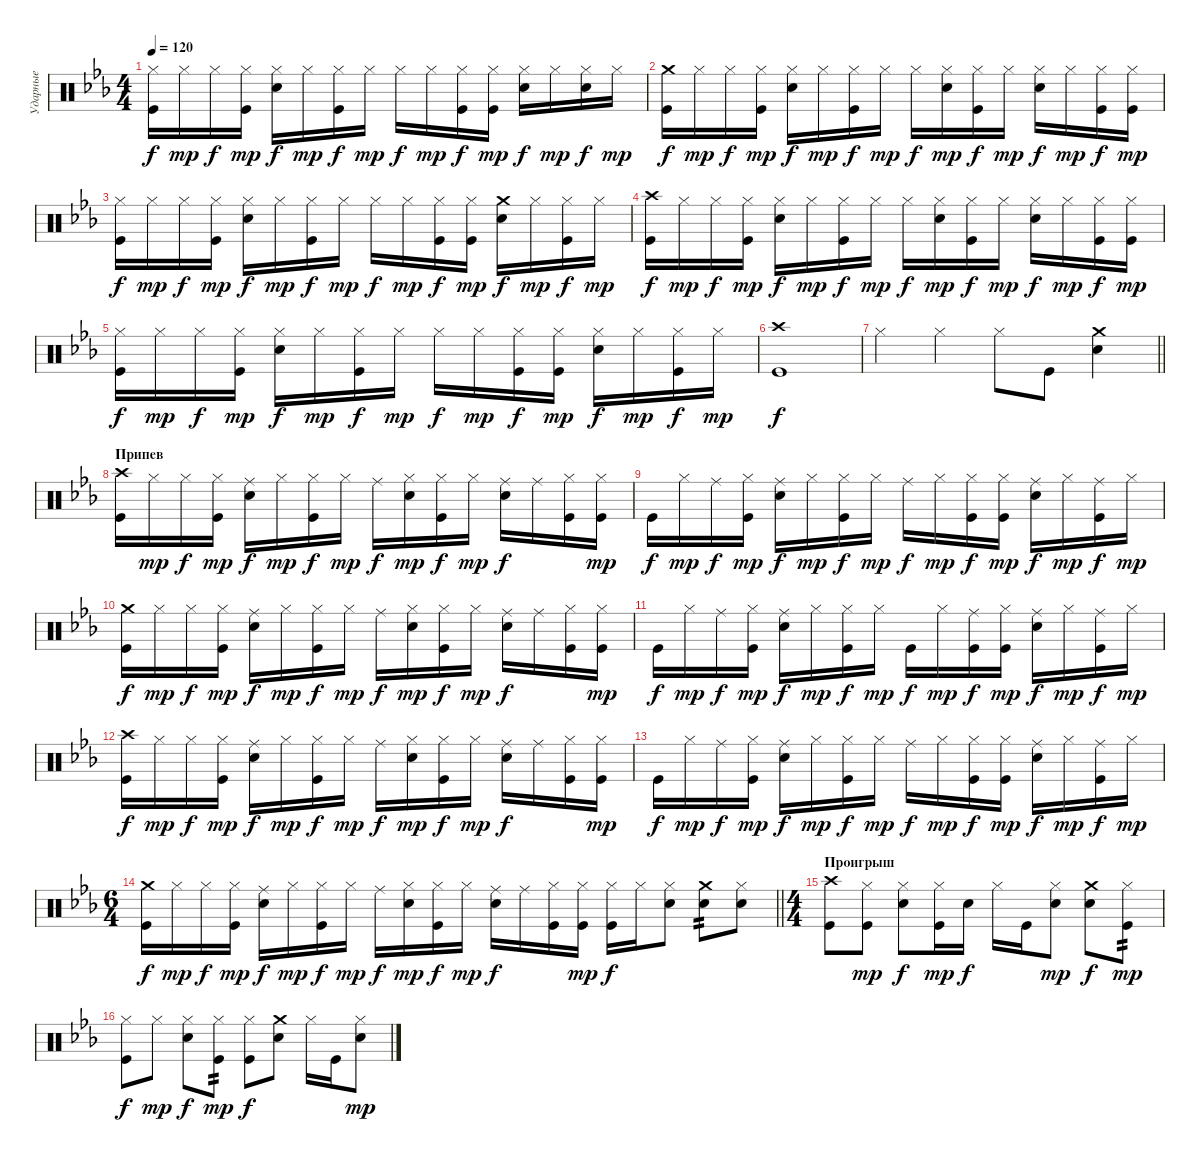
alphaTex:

\track ("Ударные" "Ударные") {instrument percussion}
\staff {score}
\articulation defaults
\ts (4 4)
\tempo 120
\clef neutral
\ks cminor
("Hi-Hat (closed)" "Kick (hit)").16{dy f} "Hi-Hat (closed)".16{dy mp} "Hi-Hat (closed)".16{dy f} ("Hi-Hat (closed)" "Kick (hit)").16{dy mp} ("Hi-Hat (closed)" "Snare (hit) 2").16{dy f} "Hi-Hat (closed)".16{dy mp} ("Hi-Hat (closed)" "Kick (hit)").16{dy f} "Hi-Hat (closed)".16{dy mp} "Hi-Hat (closed)".16{dy f} "Hi-Hat (closed)".16{dy mp} ("Hi-Hat (closed)" "Kick (hit)").16{dy f} ("Hi-Hat (closed)" "Kick (hit)").16{dy mp} ("Hi-Hat (closed)" "Snare (hit) 2").16{dy f} "Hi-Hat (closed)".16{dy mp} ("Hi-Hat (closed)" "Snare (hit) 2").16{dy f} "Hi-Hat (closed)".16{dy mp} |
("Crash medium (hit)" "Kick (hit)").16{dy f} "Hi-Hat (closed)".16{dy mp} "Hi-Hat (closed)".16{dy f} ("Hi-Hat (closed)" "Kick (hit)").16{dy mp} ("Hi-Hat (closed)" "Snare (hit) 2").16{dy f} "Hi-Hat (closed)".16{dy mp} ("Hi-Hat (closed)" "Kick (hit)").16{dy f} "Hi-Hat (closed)".16{dy mp} "Hi-Hat (closed)".16{dy f} ("Hi-Hat (closed)" "Snare (hit) 2").16{dy mp} ("Hi-Hat (closed)" "Kick (hit)").16{dy f} "Hi-Hat (closed)".16{dy mp} ("Hi-Hat (closed)" "Snare (hit) 2").16{dy f} "Hi-Hat (closed)".16{dy mp} ("Hi-Hat (closed)" "Kick (hit)").16{dy f} ("Hi-Hat (closed)" "Kick (hit)").16{dy mp} |
("Hi-Hat (closed)" "Kick (hit)").16{dy f} "Hi-Hat (closed)".16{dy mp} "Hi-Hat (closed)".16{dy f} ("Hi-Hat (closed)" "Kick (hit)").16{dy mp} ("Hi-Hat (closed)" "Snare (hit) 2").16{dy f} "Hi-Hat (closed)".16{dy mp} ("Hi-Hat (closed)" "Kick (hit)").16{dy f} "Hi-Hat (closed)".16{dy mp} "Hi-Hat (closed)".16{dy f} "Hi-Hat (closed)".16{dy mp} ("Hi-Hat (closed)" "Kick (hit)").16{dy f} ("Hi-Hat (closed)" "Kick (hit)").16{dy mp} ("Crash medium (hit)" "Snare (hit) 2").16{dy f} "Hi-Hat (closed)".16{dy mp} ("Hi-Hat (closed)" "Kick (hit)").16{dy f} "Hi-Hat (closed)".16{dy mp} |
("Crash high (hit)" "Kick (hit)").16{dy f} "Hi-Hat (closed)".16{dy mp} "Hi-Hat (closed)".16{dy f} ("Hi-Hat (closed)" "Kick (hit)").16{dy mp} ("Hi-Hat (closed)" "Snare (hit) 2").16{dy f} "Hi-Hat (closed)".16{dy mp} ("Hi-Hat (closed)" "Kick (hit)").16{dy f} "Hi-Hat (closed)".16{dy mp} "Hi-Hat (closed)".16{dy f} ("Hi-Hat (closed)" "Snare (hit) 2").16{dy mp} ("Hi-Hat (closed)" "Kick (hit)").16{dy f} "Hi-Hat (closed)".16{dy mp} ("Hi-Hat (closed)" "Snare (hit) 2").16{dy f} "Hi-Hat (closed)".16{dy mp} ("Hi-Hat (closed)" "Kick (hit)").16{dy f} ("Hi-Hat (closed)" "Kick (hit)").16{dy mp} |
("Hi-Hat (closed)" "Kick (hit)").16{dy f} "Hi-Hat (closed)".16{dy mp} "Hi-Hat (closed)".16{dy f} ("Hi-Hat (closed)" "Kick (hit)").16{dy mp} ("Hi-Hat (closed)" "Snare (hit) 2").16{dy f} "Hi-Hat (closed)".16{dy mp} ("Hi-Hat (closed)" "Kick (hit)").16{dy f} "Hi-Hat (closed)".16{dy mp} "Hi-Hat (closed)".16{dy f} "Hi-Hat (closed)".16{dy mp} ("Hi-Hat (closed)" "Kick (hit)").16{dy f} ("Hi-Hat (closed)" "Kick (hit)").16{dy mp} ("Hi-Hat (closed)" "Snare (hit) 2").16{dy f} "Hi-Hat (closed)".16{dy mp} ("Hi-Hat (closed)" "Kick (hit)").16{dy f} "Hi-Hat (closed)".16{dy mp} |
("Crash high (hit)" "Kick (hit)").1{dy f} |
\barLineRight lightlight "Hi-Hat (closed)".4 "Hi-Hat (closed)".4 "Hi-Hat (closed)".8 "Kick (hit)".8
("Crash medium (hit)" "Snare (hit) 2").4 |
\section ("" "Припев")
("Crash high (hit)" "Kick (hit)").16 "Hi-Hat (closed)".16{dy mp} "Hi-Hat (closed)".16{dy f} ("Hi-Hat (closed)" "Kick (hit)").16{dy mp} ("Ride (middle)" "Snare (hit) 2").16{dy f} "Hi-Hat (closed)".16{dy mp} ("Hi-Hat (closed)" "Kick (hit)").16{dy f} "Hi-Hat (closed)".16{dy mp} "Ride (middle)".16{dy f} ("Hi-Hat (closed)" "Snare (hit) 2").16{dy mp} ("Hi-Hat (closed)" "Kick (hit)").16{dy f} "Hi-Hat (closed)".16{dy mp} ("Ride (middle)" "Snare (hit) 2").16{dy f} "Ride (middle)".16 ("Hi-Hat (closed)" "Kick (hit)").16 ("Hi-Hat (closed)" "Kick (hit)").16{dy mp} |
"Kick (hit)".16{dy f} "Hi-Hat (closed)".16{dy mp} "Ride (middle)".16{dy f} ("Hi-Hat (closed)" "Kick (hit)").16{dy mp} ("Ride (middle)" "Snare (hit) 2").16{dy f} "Hi-Hat (closed)".16{dy mp} ("Hi-Hat (closed)" "Kick (hit)").16{dy f} "Hi-Hat (closed)".16{dy mp} "Ride (middle)".16{dy f} "Hi-Hat (closed)".16{dy mp} ("Hi-Hat (closed)" "Kick (hit)").16{dy f} ("Hi-Hat (closed)" "Kick (hit)").16{dy mp} ("Ride (middle)" "Snare (hit) 2").16{dy f} "Hi-Hat (closed)".16{dy mp} ("Ride (middle)" "Kick (hit)").16{dy f} "Hi-Hat (closed)".16{dy mp} |
("Crash medium (hit)" "Kick (hit)").16{dy f} "Hi-Hat (closed)".16{dy mp} "Hi-Hat (closed)".16{dy f} ("Hi-Hat (closed)" "Kick (hit)").16{dy mp} ("Ride (middle)" "Snare (hit) 2").16{dy f} "Hi-Hat (closed)".16{dy mp} ("Hi-Hat (closed)" "Kick (hit)").16{dy f} "Hi-Hat (closed)".16{dy mp} "Ride (middle)".16{dy f} ("Hi-Hat (closed)" "Snare (hit) 2").16{dy mp} ("Hi-Hat (closed)" "Kick (hit)").16{dy f} "Hi-Hat (closed)".16{dy mp} ("Ride (middle)" "Snare (hit) 2").16{dy f} "Ride (middle)".16 ("Hi-Hat (closed)" "Kick (hit)").16 ("Hi-Hat (closed)" "Kick (hit)").16{dy mp} |
"Kick (hit)".16{dy f} "Hi-Hat (closed)".16{dy mp} "Ride (middle)".16{dy f} ("Hi-Hat (closed)" "Kick (hit)").16{dy mp} ("Ride (middle)" "Snare (hit) 2").16{dy f} "Hi-Hat (closed)".16{dy mp} ("Hi-Hat (closed)" "Kick (hit)").16{dy f} "Hi-Hat (closed)".16{dy mp} "Kick (hit)".16{dy f} "Hi-Hat (closed)".16{dy mp} ("Ride (middle)" "Kick (hit)").16{dy f} ("Hi-Hat (closed)" "Kick (hit)").16{dy mp} ("Ride (middle)" "Snare (hit) 2").16{dy f} "Hi-Hat (closed)".16{dy mp} ("Ride (middle)" "Kick (hit)").16{dy f} "Hi-Hat (closed)".16{dy mp} |
("Crash high (hit)" "Kick (hit)").16{dy f} "Hi-Hat (closed)".16{dy mp} "Hi-Hat (closed)".16{dy f} ("Hi-Hat (closed)" "Kick (hit)").16{dy mp} ("Ride (middle)" "Snare (hit) 2").16{dy f} "Hi-Hat (closed)".16{dy mp} ("Hi-Hat (closed)" "Kick (hit)").16{dy f} "Hi-Hat (closed)".16{dy mp} "Ride (middle)".16{dy f} ("Hi-Hat (closed)" "Snare (hit) 2").16{dy mp} ("Hi-Hat (closed)" "Kick (hit)").16{dy f} "Hi-Hat (closed)".16{dy mp} ("Ride (middle)" "Snare (hit) 2").16{dy f} "Ride (middle)".16 ("Hi-Hat (closed)" "Kick (hit)").16 ("Hi-Hat (closed)" "Kick (hit)").16{dy mp} |
"Kick (hit)".16{dy f} "Hi-Hat (closed)".16{dy mp} "Ride (middle)".16{dy f} ("Hi-Hat (closed)" "Kick (hit)").16{dy mp} ("Ride (middle)" "Snare (hit) 2").16{dy f} "Hi-Hat (closed)".16{dy mp} ("Hi-Hat (closed)" "Kick (hit)").16{dy f} "Hi-Hat (closed)".16{dy mp} "Ride (middle)".16{dy f} "Hi-Hat (closed)".16{dy mp} ("Hi-Hat (closed)" "Kick (hit)").16{dy f} ("Hi-Hat (closed)" "Kick (hit)").16{dy mp} ("Ride (middle)" "Snare (hit) 2").16{dy f} "Hi-Hat (closed)".16{dy mp} ("Ride (middle)" "Kick (hit)").16{dy f} "Hi-Hat (closed)".16{dy mp} |
\ts (6 4)
\barLineRight lightlight
("Crash medium (hit)" "Kick (hit)").16{dy f} "Hi-Hat (closed)".16{dy mp} "Hi-Hat (closed)".16{dy f} ("Hi-Hat (closed)" "Kick (hit)").16{dy mp} ("Ride (middle)" "Snare (hit) 2").16{dy f} "Hi-Hat (closed)".16{dy mp} ("Hi-Hat (closed)" "Kick (hit)").16{dy f} "Hi-Hat (closed)".16{dy mp} "Ride (middle)".16{dy f} ("Hi-Hat (closed)" "Snare (hit) 2").16{dy mp} ("Hi-Hat (closed)" "Kick (hit)").16{dy f} "Hi-Hat (closed)".16{dy mp} ("Ride (middle)" "Snare (hit) 2").16{dy f} "Ride (middle)".16 ("Hi-Hat (closed)" "Kick (hit)").16 ("Hi-Hat (closed)" "Kick (hit)").16{dy mp} ("Hi-Hat (closed)" "Kick (hit)").16{dy f} "Hi-Hat (closed)".16 ("Hi-Hat (closed)" "Snare (hit) 2").8 ("Crash medium (hit)" "Snare (hit) 2").8{tp 2} ("Hi-Hat (closed)" "Snare (hit) 2").8 |
\ts (4 4)
\section ("" "Проигрыш")
("Crash high (hit)" "Kick (hit)").8 ("Hi-Hat (closed)" "Kick (hit)").8{dy mp} ("Hi-Hat (closed)" "Snare (hit) 2").8{dy f} ("Hi-Hat (closed)" "Kick (hit)").16{dy mp} "Snare (hit) 2".16{dy f} "Hi-Hat (closed)".16 "Kick (hit)".16 ("Hi-Hat (closed)" "Snare (hit) 2").8{dy mp} ("Crash medium (hit)" "Snare (hit) 2").8{dy f} ("Hi-Hat (closed)" "Kick (hit)").8{tp 2 dy mp} |
("Hi-Hat (closed)" "Kick (hit)").8{dy f} "Hi-Hat (closed)".8{dy mp} ("Hi-Hat (closed)" "Snare (hit) 2").8{dy f} ("Hi-Hat (closed)" "Kick (hit)").8{tp 2 dy mp} ("Hi-Hat (closed)" "Kick (hit)").8{dy f} ("Crash medium (hit)" "Snare (hit) 2").8 "Hi-Hat (closed)".16 "Kick (hit)".16 ("Hi-Hat (closed)" "Snare (hit) 2").8{dy mp}
